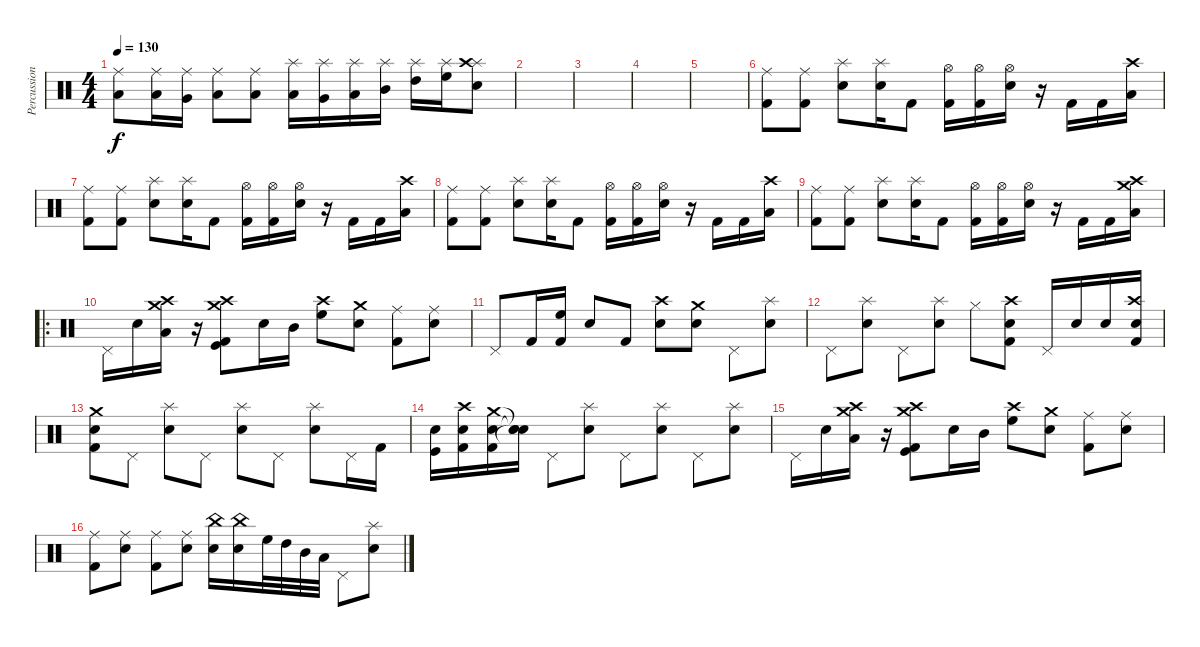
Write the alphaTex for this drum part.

\track ("Percussion" "Percussion") {instrument percussion}
\staff {score}
\articulation defaults
\ts (4 4)
\tempo 130
\clef neutral
\ks c
("Ride (middle)" "Low Floor Tom (hit)").8{dy f} ("Ride (middle)" "Low Tom (hit)").16 ("Ride (middle)" "Very Low Tom (hit)").16 ("Ride (middle)" "Low Floor Tom (hit)").8 ("Ride (middle)" "Low Floor Tom (hit)").8 ("Splash (hit)" "Low Floor Tom (hit)").16 ("Splash (hit)" "Very Low Tom (hit)").16 ("Splash (hit)" "Low Tom (hit)").16 ("Splash (hit)" "Mid Tom (hit)").16 ("Splash (hit)" "High Tom (hit)").16 ("Splash (hit)" "High Floor Tom (hit)").16 ("Splash (hit)" "Electric Snare (hit)" "Crash high (hit)").8 |
|
|
|
|
("Kick (hit) 2" "Ride (middle)").8 ("Kick (hit) 2" "Ride (middle)").8 ("Electric Snare (hit)" "Splash (hit)").8 ("Electric Snare (hit)" "Splash (hit)").16 "Kick (hit) 2".8 ("Kick (hit) 2" "Hi-Hat (open)").16 ("Kick (hit) 2" "Hi-Hat (open)").16 ("Hi-Hat (open)" "Electric Snare (hit)").16 r.16 "Kick (hit) 2".16 "Kick (hit) 2".16 ("Crash high (hit)" "Low Tom (hit)").16 |
("Kick (hit) 2" "Ride (middle)").8 ("Kick (hit) 2" "Ride (middle)").8 ("Electric Snare (hit)" "Splash (hit)").8 ("Electric Snare (hit)" "Splash (hit)").16 "Kick (hit) 2".8 ("Kick (hit) 2" "Hi-Hat (open)").16 ("Kick (hit) 2" "Hi-Hat (open)").16 ("Hi-Hat (open)" "Electric Snare (hit)").16 r.16 "Kick (hit) 2".16 "Kick (hit) 2".16 ("Crash high (hit)" "Low Tom (hit)").16 |
("Kick (hit) 2" "Ride (middle)").8 ("Kick (hit) 2" "Ride (middle)").8 ("Electric Snare (hit)" "Splash (hit)").8 ("Electric Snare (hit)" "Splash (hit)").16 "Kick (hit) 2".8 ("Kick (hit) 2" "Hi-Hat (open)").16 ("Kick (hit) 2" "Hi-Hat (open)").16 ("Hi-Hat (open)" "Electric Snare (hit)").16 r.16 "Kick (hit) 2".16 "Kick (hit) 2".16 ("Crash high (hit)" "Low Tom (hit)").16 |
("Kick (hit) 2" "Ride (middle)").8 ("Kick (hit) 2" "Ride (middle)").8 ("Electric Snare (hit)" "Splash (hit)").8 ("Electric Snare (hit)" "Splash (hit)").16 "Kick (hit) 2".8 ("Kick (hit) 2" "Hi-Hat (open)").16 ("Kick (hit) 2" "Hi-Hat (open)").16 ("Hi-Hat (open)" "Electric Snare (hit)").16 r.16 "Kick (hit) 2".16 "Kick (hit) 2".16 ("Crash high (hit)" "Low Tom (hit)" "Crash medium (hit)").16 |
\ro "Pedal Hi-Hat (hit)".16 "Electric Snare (hit)".16
("Crash medium (hit)" "Crash high (hit)" "Low Tom (hit)").16 r.16 ("Crash medium (hit)" "Crash high (hit)" "Kick (hit) 2" "Kick (hit)").8 "Electric Snare (hit)".16 "Mid Tom (hit)".16 ("Crash high (hit)" "High Floor Tom (hit)").8 ("Crash medium (hit)" "Electric Snare (hit)").8 ("Ride (middle)" "Kick (hit) 2").8 ("Ride (middle)" "Snare (hit) 2").8 |
"Pedal Hi-Hat (hit)".8 "Kick (hit) 2".16 ("Kick (hit) 2" "High Floor Tom (hit)").16 "Electric Snare (hit)".8 "Kick (hit) 2".8 ("Crash high (hit)" "Electric Snare (hit)").8 ("Crash medium (hit)" "Snare (hit) 2").8 "Pedal Hi-Hat (hit)".8 ("Splash (hit)" "Electric Snare (hit)").8 |
"Pedal Hi-Hat (hit)".8 ("Splash (hit)" "Electric Snare (hit)").8 "Pedal Hi-Hat (hit)".8 ("Splash (hit)" "Electric Snare (hit)").8 "Hi-Hat (closed)".8 ("Crash high (hit)" "Electric Snare (hit)" "Kick (hit) 2").8 "Pedal Hi-Hat (hit)".16 "Electric Snare (hit)".16 "Electric Snare (hit)".16 ("Crash high (hit)" "Electric Snare (hit)" "Kick (hit) 2").16 |
("Crash medium (hit)" "Electric Snare (hit)" "Kick (hit) 2").8 "Pedal Hi-Hat (hit)".8 ("Splash (hit)" "Electric Snare (hit)").8 "Pedal Hi-Hat (hit)".8 ("Splash (hit)" "Electric Snare (hit)").8 "Pedal Hi-Hat (hit)".8 ("Splash (hit)" "Electric Snare (hit)").8 "Pedal Hi-Hat (hit)".16 "Kick (hit) 2".16 |
("Kick (hit)" "Electric Snare (hit)").16 ("Crash high (hit)" "Electric Snare (hit)" "Kick (hit) 2").16 ("Crash medium (hit)" "Electric Snare (hit)" "Kick (hit) 2").16 ("Snare (hit)"{t} "Snare (hit)"{t} "Snare (hit)"{t}).16 "Pedal Hi-Hat (hit)".8 ("Splash (hit)" "Electric Snare (hit)").8 "Pedal Hi-Hat (hit)".8 ("Splash (hit)" "Electric Snare (hit)").8 "Pedal Hi-Hat (hit)".8 ("Splash (hit)" "Electric Snare (hit)").8 |
"Pedal Hi-Hat (hit)".16 "Electric Snare (hit)".16 ("Crash medium (hit)" "Crash high (hit)" "Low Tom (hit)").16 r.16 ("Crash medium (hit)" "Crash high (hit)" "Kick (hit) 2" "Kick (hit)").8 "Electric Snare (hit)".16 "Mid Tom (hit)".16 ("Crash high (hit)" "High Floor Tom (hit)").8 ("Crash medium (hit)" "Electric Snare (hit)").8 ("Ride (middle)" "Kick (hit) 2").8 ("Ride (middle)" "Snare (hit) 2").8 |
("Ride (middle)" "Kick (hit) 2").8 ("Ride (middle)" "Snare (hit) 2").8 ("Ride (middle)" "Kick (hit) 2").8 ("Ride (middle)" "Snare (hit) 2").8 ("China (hit)" "Electric Snare (hit)").16 ("China (hit)" "Electric Snare (hit)").16 "High Floor Tom (hit)".32 "High Tom (hit)".32 "Mid Tom (hit)".32 "Low Tom (hit)".32 "Pedal Hi-Hat (hit)".8 ("Splash (hit)" "Electric Snare (hit)").8
